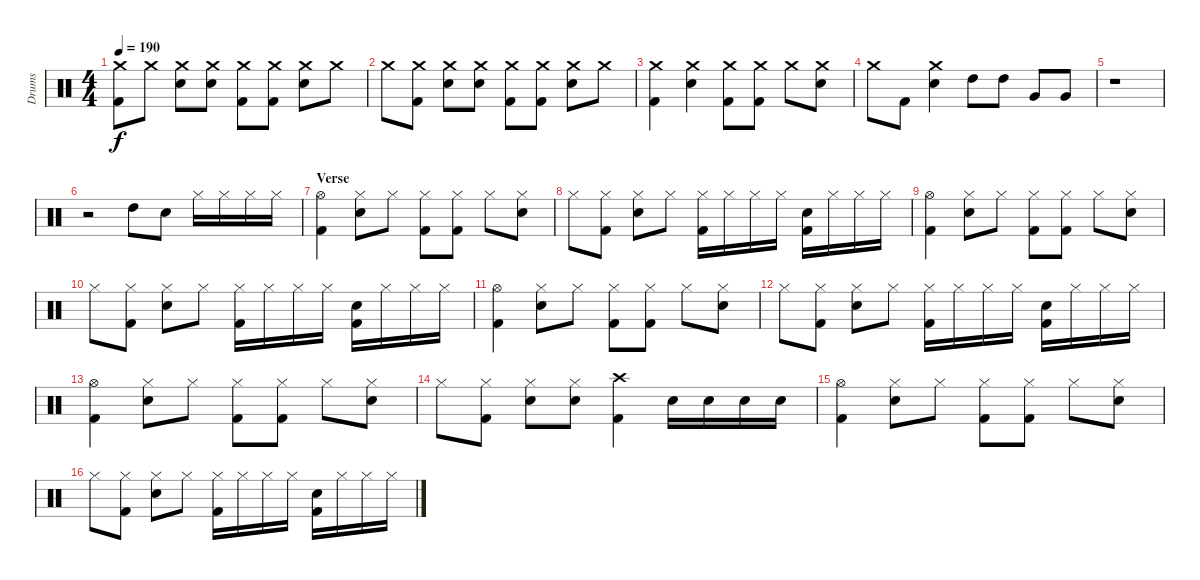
\track ("Drums" "Drums") {instrument percussion}
\staff {score}
\articulation defaults
\ts (4 4)
\tempo 190
\clef neutral
\ks c
("Crash medium (hit)" "Kick (hit) 2").8{dy f} "Crash medium (hit)".8 ("Crash medium (hit)" "Snare (hit) 2").8 ("Crash medium (hit)" "Snare (hit) 2").8 ("Crash medium (hit)" "Kick (hit) 2").8 ("Crash medium (hit)" "Kick (hit) 2").8 ("Crash medium (hit)" "Snare (hit) 2").8 "Crash medium (hit)".8 |
"Crash medium (hit)".8 ("Crash medium (hit)" "Kick (hit) 2").8 ("Crash medium (hit)" "Snare (hit) 2").8 ("Crash medium (hit)" "Snare (hit) 2").8 ("Crash medium (hit)" "Kick (hit) 2").8 ("Crash medium (hit)" "Kick (hit) 2").8 ("Crash medium (hit)" "Snare (hit) 2").8 "Crash medium (hit)".8 |
("Crash medium (hit)" "Kick (hit) 2").4 ("Crash medium (hit)" "Snare (hit) 2").4 ("Crash medium (hit)" "Kick (hit) 2").8 ("Crash medium (hit)" "Kick (hit) 2").8 "Crash medium (hit)".8 ("Crash medium (hit)" "Snare (hit) 2").8 |
"Crash medium (hit)".8 "Kick (hit) 2".8 ("Crash medium (hit)" "Snare (hit) 2").4 "High Tom (hit)".8 "High Tom (hit)".8 "Very Low Tom (hit)".8 "Very Low Tom (hit)".8 |
r.1 |
r.2 "High Tom (hit)".8 "Snare (hit) 2".8 "Hi-Hat (closed)".16 "Hi-Hat (closed)".16 "Hi-Hat (closed)".16 "Hi-Hat (closed)".16 |
\section ("" "Verse")
("Hi-Hat (open)" "Kick (hit) 2").4 ("Hi-Hat (closed)" "Snare (hit) 2").8 "Hi-Hat (closed)".8 ("Hi-Hat (closed)" "Kick (hit) 2").8 ("Hi-Hat (closed)" "Kick (hit) 2").8 "Hi-Hat (closed)".8 ("Hi-Hat (closed)" "Snare (hit) 2").8 |
"Hi-Hat (closed)".8 ("Hi-Hat (closed)" "Kick (hit) 2").8 ("Hi-Hat (closed)" "Snare (hit) 2").8 "Hi-Hat (closed)".8 ("Hi-Hat (closed)" "Kick (hit) 2").16 "Hi-Hat (closed)".16 "Hi-Hat (closed)".16 "Hi-Hat (closed)".16 ("Snare (hit) 2" "Kick (hit) 2").16 "Hi-Hat (closed)".16 "Hi-Hat (closed)".16 "Hi-Hat (closed)".16 |
("Hi-Hat (open)" "Kick (hit) 2").4 ("Hi-Hat (closed)" "Snare (hit) 2").8 "Hi-Hat (closed)".8 ("Hi-Hat (closed)" "Kick (hit) 2").8 ("Hi-Hat (closed)" "Kick (hit) 2").8 "Hi-Hat (closed)".8 ("Hi-Hat (closed)" "Snare (hit) 2").8 |
"Hi-Hat (closed)".8 ("Hi-Hat (closed)" "Kick (hit) 2").8 ("Hi-Hat (closed)" "Snare (hit) 2").8 "Hi-Hat (closed)".8 ("Hi-Hat (closed)" "Kick (hit) 2").16 "Hi-Hat (closed)".16 "Hi-Hat (closed)".16 "Hi-Hat (closed)".16 ("Snare (hit) 2" "Kick (hit) 2").16 "Hi-Hat (closed)".16 "Hi-Hat (closed)".16 "Hi-Hat (closed)".16 |
("Hi-Hat (open)" "Kick (hit) 2").4 ("Hi-Hat (closed)" "Snare (hit) 2").8 "Hi-Hat (closed)".8 ("Hi-Hat (closed)" "Kick (hit) 2").8 ("Hi-Hat (closed)" "Kick (hit) 2").8 "Hi-Hat (closed)".8 ("Hi-Hat (closed)" "Snare (hit) 2").8 |
"Hi-Hat (closed)".8 ("Hi-Hat (closed)" "Kick (hit) 2").8 ("Hi-Hat (closed)" "Snare (hit) 2").8 "Hi-Hat (closed)".8 ("Hi-Hat (closed)" "Kick (hit) 2").16 "Hi-Hat (closed)".16 "Hi-Hat (closed)".16 "Hi-Hat (closed)".16 ("Snare (hit) 2" "Kick (hit) 2").16 "Hi-Hat (closed)".16 "Hi-Hat (closed)".16 "Hi-Hat (closed)".16 |
("Hi-Hat (open)" "Kick (hit) 2").4 ("Hi-Hat (closed)" "Snare (hit) 2").8 "Hi-Hat (closed)".8 ("Hi-Hat (closed)" "Kick (hit) 2").8 ("Hi-Hat (closed)" "Kick (hit) 2").8 "Hi-Hat (closed)".8 ("Hi-Hat (closed)" "Snare (hit) 2").8 |
"Hi-Hat (closed)".8 ("Hi-Hat (closed)" "Kick (hit) 2").8 ("Hi-Hat (closed)" "Snare (hit) 2").8 ("Hi-Hat (closed)" "Snare (hit) 2").8 ("Crash high (hit)" "Kick (hit) 2").4 "Snare (hit) 2".16 "Snare (hit) 2".16 "Snare (hit) 2".16 "Snare (hit) 2".16 |
("Hi-Hat (open)" "Kick (hit) 2").4 ("Hi-Hat (closed)" "Snare (hit) 2").8 "Hi-Hat (closed)".8 ("Hi-Hat (closed)" "Kick (hit) 2").8 ("Hi-Hat (closed)" "Kick (hit) 2").8 "Hi-Hat (closed)".8 ("Hi-Hat (closed)" "Snare (hit) 2").8 |
"Hi-Hat (closed)".8 ("Hi-Hat (closed)" "Kick (hit) 2").8 ("Hi-Hat (closed)" "Snare (hit) 2").8 "Hi-Hat (closed)".8 ("Hi-Hat (closed)" "Kick (hit) 2").16 "Hi-Hat (closed)".16 "Hi-Hat (closed)".16 "Hi-Hat (closed)".16 ("Snare (hit) 2" "Kick (hit) 2").16 "Hi-Hat (closed)".16 "Hi-Hat (closed)".16 "Hi-Hat (closed)".16
